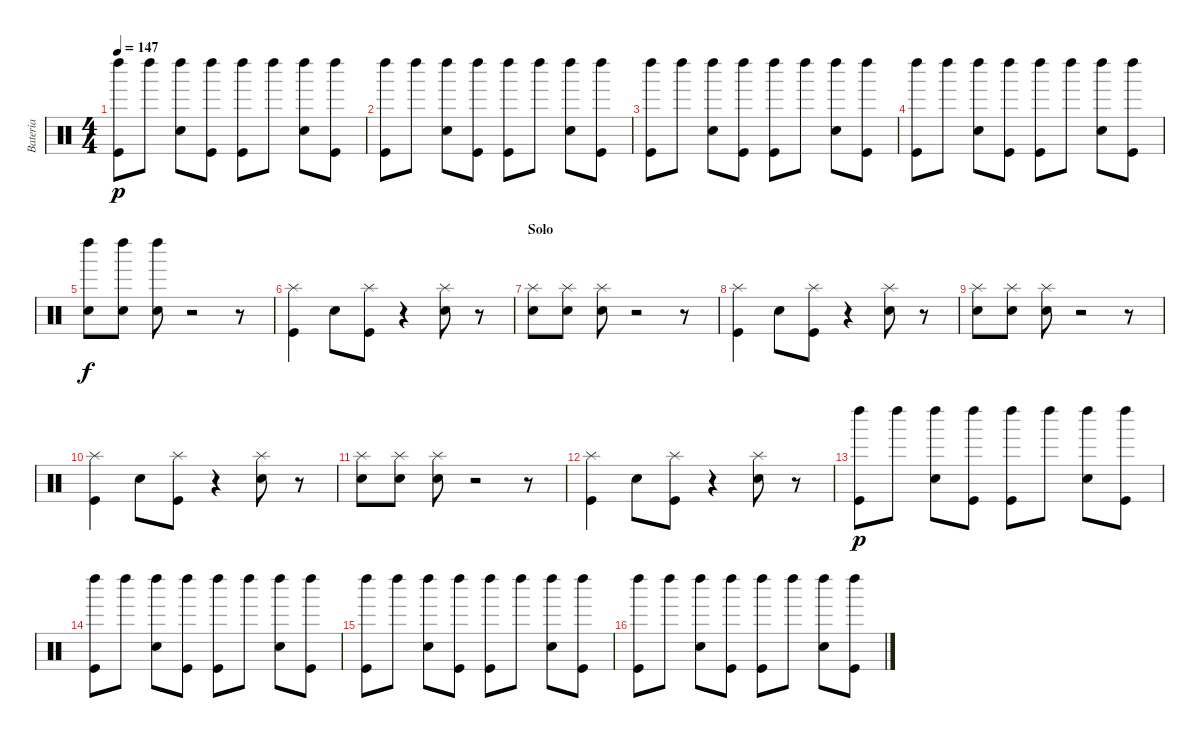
\track ("Bateria" "Bateria") {instrument percussion}
\staff {score}
\articulation defaults
\ts (4 4)
\tempo 147
\clef neutral
\ks c
("Kick (hit)" "Left Maraca (hit)").8{dy p} "Left Maraca (hit)".8 ("Snare (hit) 2" "Left Maraca (hit)").8 ("Left Maraca (hit)" "Kick (hit)").8 ("Left Maraca (hit)" "Kick (hit)").8 "Left Maraca (hit)".8 ("Snare (hit) 2" "Left Maraca (hit)").8 ("Kick (hit)" "Left Maraca (hit)").8 |
("Left Maraca (hit)" "Kick (hit)").8 "Left Maraca (hit)".8 ("Snare (hit) 2" "Left Maraca (hit)").8 ("Left Maraca (hit)" "Kick (hit)").8 ("Left Maraca (hit)" "Kick (hit)").8 "Left Maraca (hit)".8 ("Snare (hit) 2" "Left Maraca (hit)").8 ("Kick (hit)" "Left Maraca (hit)").8 |
("Kick (hit)" "Left Maraca (hit)").8 "Left Maraca (hit)".8 ("Snare (hit) 2" "Left Maraca (hit)").8 ("Left Maraca (hit)" "Kick (hit)").8 ("Left Maraca (hit)" "Kick (hit)").8 "Left Maraca (hit)".8 ("Snare (hit) 2" "Left Maraca (hit)").8 ("Kick (hit)" "Left Maraca (hit)").8 |
("Left Maraca (hit)" "Kick (hit)").8 "Left Maraca (hit)".8 ("Left Maraca (hit)" "Snare (hit) 2").8 ("Left Maraca (hit)" "Kick (hit)").8 ("Left Maraca (hit)" "Kick (hit)").8 "Left Maraca (hit)".8 ("Snare (hit) 2" "Left Maraca (hit)").8 ("Kick (hit)" "Left Maraca (hit)").8 |
("Left Maraca (hit)" "Snare (hit) 2").8{dy f} ("Left Maraca (hit)" "Snare (hit) 2").8 ("Left Maraca (hit)" "Snare (hit) 2").8 r.2 r.8 |
("Kick (hit)" "Splash (hit)").4 "Snare (hit) 2".8 ("Splash (hit)" "Kick (hit)").8 r.4 ("Snare (hit) 2" "Splash (hit)").8 r.8 |
\section ("" "Solo")
("Snare (hit) 2" "Splash (hit)").8 ("Snare (hit) 2" "Splash (hit)").8 ("Snare (hit) 2" "Splash (hit)").8 r.2 r.8 |
("Splash (hit)" "Kick (hit)").4 "Snare (hit) 2".8 ("Splash (hit)" "Kick (hit)").8 r.4 ("Snare (hit) 2" "Splash (hit)").8 r.8 |
("Snare (hit) 2" "Splash (hit)").8 ("Snare (hit) 2" "Splash (hit)").8 ("Snare (hit) 2" "Splash (hit)").8 r.2 r.8 |
("Splash (hit)" "Kick (hit)").4 "Snare (hit) 2".8 ("Splash (hit)" "Kick (hit)").8 r.4 ("Snare (hit) 2" "Splash (hit)").8 r.8 |
("Splash (hit)" "Snare (hit) 2").8 ("Snare (hit) 2" "Splash (hit)").8 ("Snare (hit) 2" "Splash (hit)").8 r.2 r.8 |
("Kick (hit)" "Splash (hit)").4 "Snare (hit) 2".8 ("Splash (hit)" "Kick (hit)").8 r.4 ("Snare (hit) 2" "Splash (hit)").8 r.8 |
("Kick (hit)" "Left Maraca (hit)").8{dy p} "Left Maraca (hit)".8 ("Snare (hit) 2" "Left Maraca (hit)").8 ("Left Maraca (hit)" "Kick (hit)").8 ("Left Maraca (hit)" "Kick (hit)").8 "Left Maraca (hit)".8 ("Snare (hit) 2" "Left Maraca (hit)").8 ("Kick (hit)" "Left Maraca (hit)").8 |
("Kick (hit)" "Left Maraca (hit)").8 "Left Maraca (hit)".8 ("Snare (hit) 2" "Left Maraca (hit)").8 ("Left Maraca (hit)" "Kick (hit)").8 ("Left Maraca (hit)" "Kick (hit)").8 "Left Maraca (hit)".8 ("Snare (hit) 2" "Left Maraca (hit)").8 ("Kick (hit)" "Left Maraca (hit)").8 |
("Left Maraca (hit)" "Kick (hit)").8 "Left Maraca (hit)".8 ("Snare (hit) 2" "Left Maraca (hit)").8 ("Left Maraca (hit)" "Kick (hit)").8 ("Left Maraca (hit)" "Kick (hit)").8 "Left Maraca (hit)".8 ("Snare (hit) 2" "Left Maraca (hit)").8 ("Kick (hit)" "Left Maraca (hit)").8 |
("Kick (hit)" "Left Maraca (hit)").8 "Left Maraca (hit)".8 ("Snare (hit) 2" "Left Maraca (hit)").8 ("Left Maraca (hit)" "Kick (hit)").8 ("Left Maraca (hit)" "Kick (hit)").8 "Left Maraca (hit)".8 ("Snare (hit) 2" "Left Maraca (hit)").8 ("Kick (hit)" "Left Maraca (hit)").8
